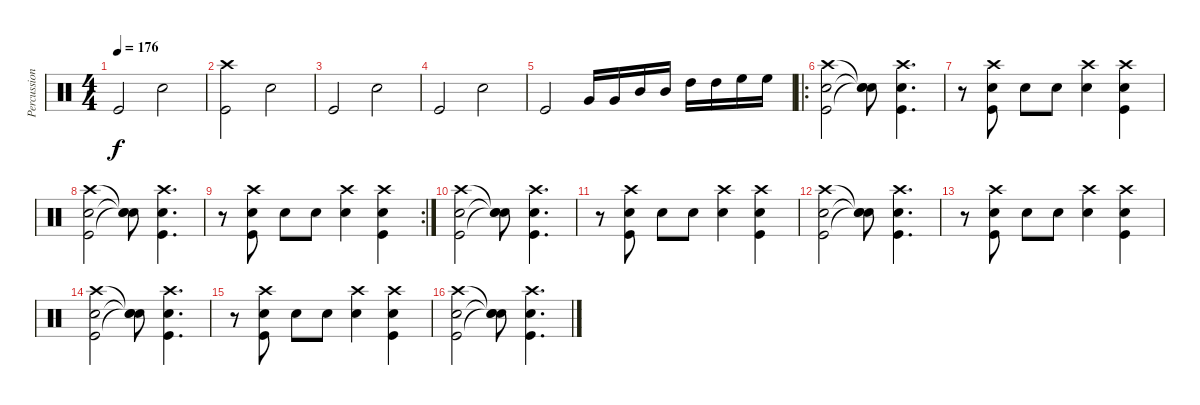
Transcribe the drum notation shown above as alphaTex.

\track ("Percussions" "Percussion") {instrument percussion}
\staff {score}
\articulation defaults
\ts (4 4)
\tempo 176
\clef neutral
\ks c "Kick (hit)".2{dy f} "Snare (hit) 2".2
|
("Crash high (hit)" "Kick (hit)").2 "Snare (hit) 2".2 |
"Kick (hit)".2 "Snare (hit) 2".2 |
"Kick (hit)".2 "Snare (hit) 2".2 |
"Kick (hit)".2 "Very Low Tom (hit)".16 "Very Low Tom (hit)".16 "Mid Tom (hit)".16 "Mid Tom (hit)".16 "High Tom (hit)".16 "High Tom (hit)".16 "High Floor Tom (hit)".16 "High Floor Tom (hit)".16 |
\ro
("Crash high (hit)" "Snare (hit) 2" "Kick (hit)").2 ("Snare (hit)"{t} "Snare (hit)"{t} "Snare (hit)"{t}).8 ("Crash high (hit)" "Snare (hit) 2" "Kick (hit)").4{d} |
r.8 ("Crash high (hit)" "Snare (hit) 2" "Kick (hit)").8 "Snare (hit) 2".8 "Snare (hit) 2".8 ("Crash high (hit)" "Snare (hit) 2").4 ("Crash high (hit)" "Snare (hit) 2" "Kick (hit)").4 |
("Crash high (hit)" "Snare (hit) 2" "Kick (hit)").2 ("Snare (hit)"{t} "Snare (hit)"{t} "Snare (hit)"{t}).8 ("Crash high (hit)" "Snare (hit) 2" "Kick (hit)").4{d} |
\rc 2
r.8 ("Crash high (hit)" "Snare (hit) 2" "Kick (hit)").8 "Snare (hit) 2".8 "Snare (hit) 2".8 ("Crash high (hit)" "Snare (hit) 2").4 ("Crash high (hit)" "Snare (hit) 2" "Kick (hit)").4 |
("Crash high (hit)" "Snare (hit) 2" "Kick (hit)").2 ("Snare (hit)"{t} "Snare (hit)"{t} "Snare (hit)"{t}).8 ("Crash high (hit)" "Snare (hit) 2" "Kick (hit)").4{d} |
r.8 ("Crash high (hit)" "Snare (hit) 2" "Kick (hit)").8 "Snare (hit) 2".8 "Snare (hit) 2".8 ("Crash high (hit)" "Snare (hit) 2").4 ("Crash high (hit)" "Snare (hit) 2" "Kick (hit)").4 |
("Crash high (hit)" "Snare (hit) 2" "Kick (hit)").2 ("Snare (hit)"{t} "Snare (hit)"{t} "Snare (hit)"{t}).8 ("Crash high (hit)" "Snare (hit) 2" "Kick (hit)").4{d} |
r.8 ("Crash high (hit)" "Snare (hit) 2" "Kick (hit)").8 "Snare (hit) 2".8 "Snare (hit) 2".8 ("Crash high (hit)" "Snare (hit) 2").4 ("Crash high (hit)" "Snare (hit) 2" "Kick (hit)").4 |
("Crash high (hit)" "Snare (hit) 2" "Kick (hit)").2 ("Snare (hit)"{t} "Snare (hit)"{t} "Snare (hit)"{t}).8 ("Crash high (hit)" "Snare (hit) 2" "Kick (hit)").4{d} |
r.8 ("Crash high (hit)" "Snare (hit) 2" "Kick (hit)").8 "Snare (hit) 2".8 "Snare (hit) 2".8 ("Crash high (hit)" "Snare (hit) 2").4 ("Crash high (hit)" "Snare (hit) 2" "Kick (hit)").4 |
("Crash high (hit)" "Snare (hit) 2" "Kick (hit)").2 ("Snare (hit)"{t} "Snare (hit)"{t} "Snare (hit)"{t}).8 ("Crash high (hit)" "Snare (hit) 2" "Kick (hit)").4{d}
